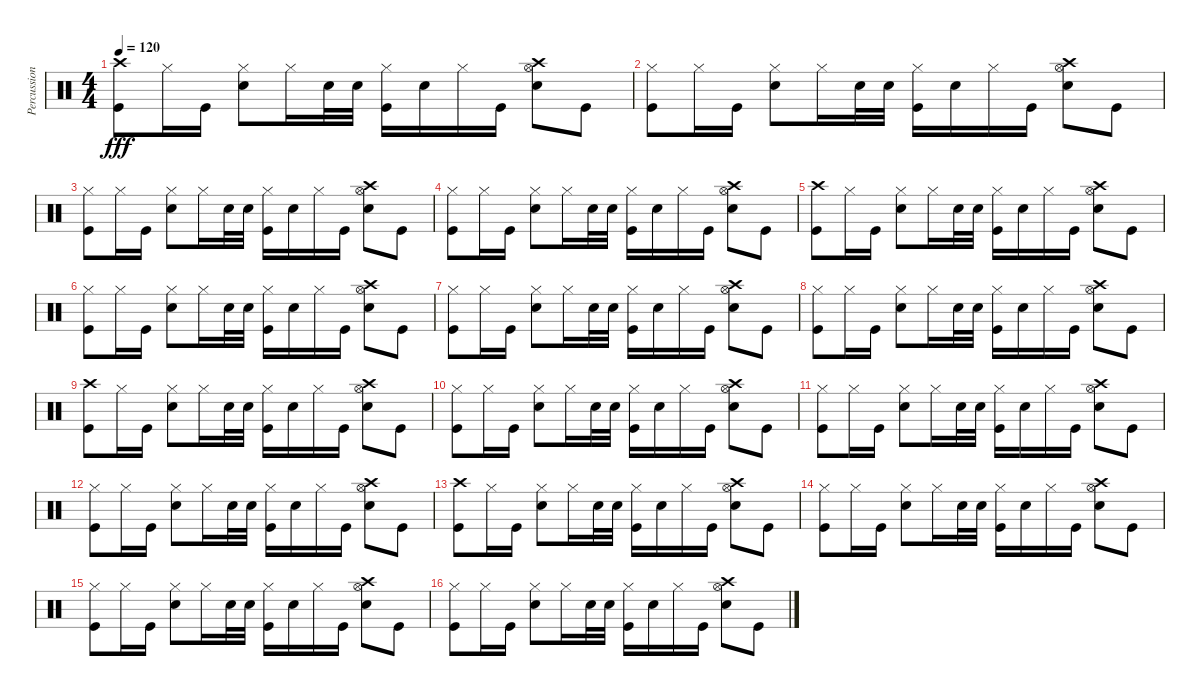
\track ("Percussion" "Percussion") {instrument percussion}
\staff {score}
\articulation defaults
\ts (4 4)
\tempo 120
\clef neutral
\ks c
("Crash high (hit)" "Kick (hit)").8{dy fff} "Hi-Hat (closed)".16 "Kick (hit)".16 ("Snare (hit) 2" "Hi-Hat (closed)").8 "Hi-Hat (closed)".16 "Snare (hit) 2".32 "Snare (hit) 2".32 ("Hi-Hat (closed)" "Kick (hit)").16 "Snare (hit) 2".16 "Hi-Hat (closed)".16 "Kick (hit)".16 ("Snare (hit) 2" "Hi-Hat (open)" "Crash high (hit)").8 "Kick (hit)".8 |
("Hi-Hat (closed)" "Kick (hit)").8 "Hi-Hat (closed)".16 "Kick (hit)".16 ("Snare (hit) 2" "Hi-Hat (closed)").8 "Hi-Hat (closed)".16 "Snare (hit) 2".32 "Snare (hit) 2".32 ("Hi-Hat (closed)" "Kick (hit)").16 "Snare (hit) 2".16 "Hi-Hat (closed)".16 "Kick (hit)".16 ("Snare (hit) 2" "Hi-Hat (open)" "Crash high (hit)").8 "Kick (hit)".8 |
("Hi-Hat (closed)" "Kick (hit)").8 "Hi-Hat (closed)".16 "Kick (hit)".16 ("Snare (hit) 2" "Hi-Hat (closed)").8 "Hi-Hat (closed)".16 "Snare (hit) 2".32 "Snare (hit) 2".32 ("Hi-Hat (closed)" "Kick (hit)").16 "Snare (hit) 2".16 "Hi-Hat (closed)".16 "Kick (hit)".16 ("Snare (hit) 2" "Hi-Hat (open)" "Crash high (hit)").8 "Kick (hit)".8 |
("Hi-Hat (closed)" "Kick (hit)").8 "Hi-Hat (closed)".16 "Kick (hit)".16 ("Snare (hit) 2" "Hi-Hat (closed)").8 "Hi-Hat (closed)".16 "Snare (hit) 2".32 "Snare (hit) 2".32 ("Hi-Hat (closed)" "Kick (hit)").16 "Snare (hit) 2".16 "Hi-Hat (closed)".16 "Kick (hit)".16 ("Snare (hit) 2" "Hi-Hat (open)" "Crash high (hit)").8 "Kick (hit)".8 |
("Crash high (hit)" "Kick (hit)").8 "Hi-Hat (closed)".16 "Kick (hit)".16 ("Snare (hit) 2" "Hi-Hat (closed)").8 "Hi-Hat (closed)".16 "Snare (hit) 2".32 "Snare (hit) 2".32 ("Hi-Hat (closed)" "Kick (hit)").16 "Snare (hit) 2".16 "Hi-Hat (closed)".16 "Kick (hit)".16 ("Snare (hit) 2" "Hi-Hat (open)" "Crash high (hit)").8 "Kick (hit)".8 |
("Hi-Hat (closed)" "Kick (hit)").8 "Hi-Hat (closed)".16 "Kick (hit)".16 ("Snare (hit) 2" "Hi-Hat (closed)").8 "Hi-Hat (closed)".16 "Snare (hit) 2".32 "Snare (hit) 2".32 ("Hi-Hat (closed)" "Kick (hit)").16 "Snare (hit) 2".16 "Hi-Hat (closed)".16 "Kick (hit)".16 ("Snare (hit) 2" "Hi-Hat (open)" "Crash high (hit)").8 "Kick (hit)".8 |
("Hi-Hat (closed)" "Kick (hit)").8 "Hi-Hat (closed)".16 "Kick (hit)".16 ("Snare (hit) 2" "Hi-Hat (closed)").8 "Hi-Hat (closed)".16 "Snare (hit) 2".32 "Snare (hit) 2".32 ("Hi-Hat (closed)" "Kick (hit)").16 "Snare (hit) 2".16 "Hi-Hat (closed)".16 "Kick (hit)".16 ("Snare (hit) 2" "Hi-Hat (open)" "Crash high (hit)").8 "Kick (hit)".8 |
("Hi-Hat (closed)" "Kick (hit)").8 "Hi-Hat (closed)".16 "Kick (hit)".16 ("Snare (hit) 2" "Hi-Hat (closed)").8 "Hi-Hat (closed)".16 "Snare (hit) 2".32 "Snare (hit) 2".32 ("Hi-Hat (closed)" "Kick (hit)").16 "Snare (hit) 2".16 "Hi-Hat (closed)".16 "Kick (hit)".16 ("Snare (hit) 2" "Hi-Hat (open)" "Crash high (hit)").8 "Kick (hit)".8 |
("Crash high (hit)" "Kick (hit)").8 "Hi-Hat (closed)".16 "Kick (hit)".16 ("Snare (hit) 2" "Hi-Hat (closed)").8 "Hi-Hat (closed)".16 "Snare (hit) 2".32 "Snare (hit) 2".32 ("Hi-Hat (closed)" "Kick (hit)").16 "Snare (hit) 2".16 "Hi-Hat (closed)".16 "Kick (hit)".16 ("Snare (hit) 2" "Hi-Hat (open)" "Crash high (hit)").8 "Kick (hit)".8 |
("Hi-Hat (closed)" "Kick (hit)").8 "Hi-Hat (closed)".16 "Kick (hit)".16 ("Snare (hit) 2" "Hi-Hat (closed)").8 "Hi-Hat (closed)".16 "Snare (hit) 2".32 "Snare (hit) 2".32 ("Hi-Hat (closed)" "Kick (hit)").16 "Snare (hit) 2".16 "Hi-Hat (closed)".16 "Kick (hit)".16 ("Snare (hit) 2" "Hi-Hat (open)" "Crash high (hit)").8 "Kick (hit)".8 |
("Hi-Hat (closed)" "Kick (hit)").8 "Hi-Hat (closed)".16 "Kick (hit)".16 ("Snare (hit) 2" "Hi-Hat (closed)").8 "Hi-Hat (closed)".16 "Snare (hit) 2".32 "Snare (hit) 2".32 ("Hi-Hat (closed)" "Kick (hit)").16 "Snare (hit) 2".16 "Hi-Hat (closed)".16 "Kick (hit)".16 ("Snare (hit) 2" "Hi-Hat (open)" "Crash high (hit)").8 "Kick (hit)".8 |
("Hi-Hat (closed)" "Kick (hit)").8 "Hi-Hat (closed)".16 "Kick (hit)".16 ("Snare (hit) 2" "Hi-Hat (closed)").8 "Hi-Hat (closed)".16 "Snare (hit) 2".32 "Snare (hit) 2".32 ("Hi-Hat (closed)" "Kick (hit)").16 "Snare (hit) 2".16 "Hi-Hat (closed)".16 "Kick (hit)".16 ("Snare (hit) 2" "Hi-Hat (open)" "Crash high (hit)").8 "Kick (hit)".8 |
("Crash high (hit)" "Kick (hit)").8 "Hi-Hat (closed)".16 "Kick (hit)".16 ("Snare (hit) 2" "Hi-Hat (closed)").8 "Hi-Hat (closed)".16 "Snare (hit) 2".32 "Snare (hit) 2".32 ("Hi-Hat (closed)" "Kick (hit)").16 "Snare (hit) 2".16 "Hi-Hat (closed)".16 "Kick (hit)".16 ("Snare (hit) 2" "Hi-Hat (open)" "Crash high (hit)").8 "Kick (hit)".8 |
("Hi-Hat (closed)" "Kick (hit)").8 "Hi-Hat (closed)".16 "Kick (hit)".16 ("Snare (hit) 2" "Hi-Hat (closed)").8 "Hi-Hat (closed)".16 "Snare (hit) 2".32 "Snare (hit) 2".32 ("Hi-Hat (closed)" "Kick (hit)").16 "Snare (hit) 2".16 "Hi-Hat (closed)".16 "Kick (hit)".16 ("Snare (hit) 2" "Hi-Hat (open)" "Crash high (hit)").8 "Kick (hit)".8 |
("Hi-Hat (closed)" "Kick (hit)").8 "Hi-Hat (closed)".16 "Kick (hit)".16 ("Snare (hit) 2" "Hi-Hat (closed)").8 "Hi-Hat (closed)".16 "Snare (hit) 2".32 "Snare (hit) 2".32 ("Hi-Hat (closed)" "Kick (hit)").16 "Snare (hit) 2".16 "Hi-Hat (closed)".16 "Kick (hit)".16 ("Snare (hit) 2" "Hi-Hat (open)" "Crash high (hit)").8 "Kick (hit)".8 |
("Hi-Hat (closed)" "Kick (hit)").8 "Hi-Hat (closed)".16 "Kick (hit)".16 ("Snare (hit) 2" "Hi-Hat (closed)").8 "Hi-Hat (closed)".16 "Snare (hit) 2".32 "Snare (hit) 2".32 ("Hi-Hat (closed)" "Kick (hit)").16 "Snare (hit) 2".16 "Hi-Hat (closed)".16 "Kick (hit)".16 ("Snare (hit) 2" "Hi-Hat (open)" "Crash high (hit)").8 "Kick (hit)".8
